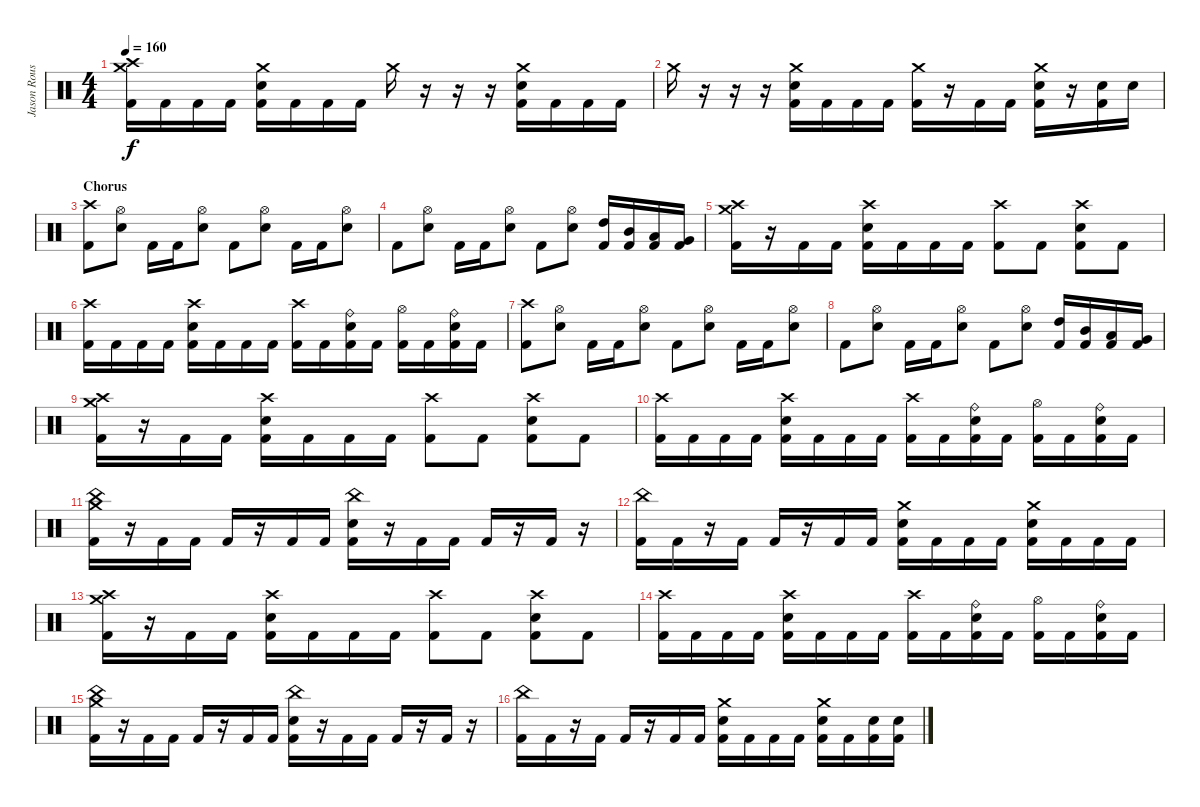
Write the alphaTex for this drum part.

\track ("Jason Rousseau" "Jason Rous") {instrument percussion}
\staff {score}
\articulation defaults
\ts (4 4)
\tempo 160
\clef neutral
\ks c
("Crash high (hit)" "Crash medium (hit)" "Kick (hit) 2").16{dy f} "Kick (hit) 2".16 "Kick (hit) 2".16 "Kick (hit) 2".16 ("Crash medium (hit)" "Electric Snare (hit)" "Kick (hit) 2").16 "Kick (hit) 2".16 "Kick (hit) 2".16 "Kick (hit) 2".16 "Crash medium (hit)".16 r.16 r.16 r.16 ("Crash medium (hit)" "Electric Snare (hit)" "Kick (hit) 2").16 "Kick (hit) 2".16 "Kick (hit) 2".16 "Kick (hit) 2".16 |
"Crash medium (hit)".16 r.16 r.16 r.16 ("Crash medium (hit)" "Electric Snare (hit)" "Kick (hit) 2").16 "Kick (hit) 2".16 "Kick (hit) 2".16 "Kick (hit) 2".16 ("Crash medium (hit)" "Kick (hit) 2").16 r.16 "Kick (hit) 2".16 "Kick (hit) 2".16 ("Crash medium (hit)" "Electric Snare (hit)" "Kick (hit) 2").16 r.16 ("Electric Snare (hit)" "Kick (hit) 2").16 "Electric Snare (hit)".16 |
\section ("" "Chorus")
("Crash high (hit)" "Kick (hit) 2").8 ("Hi-Hat (open)" "Electric Snare (hit)").8 "Kick (hit) 2".16 "Kick (hit) 2".16 ("Hi-Hat (open)" "Electric Snare (hit)").8 "Kick (hit) 2".8 ("Hi-Hat (open)" "Electric Snare (hit)").8 "Kick (hit) 2".16 "Kick (hit) 2".16 ("Hi-Hat (open)" "Electric Snare (hit)").8 |
"Kick (hit) 2".8 ("Hi-Hat (open)" "Electric Snare (hit)").8 "Kick (hit) 2".16 "Kick (hit) 2".16 ("Hi-Hat (open)" "Electric Snare (hit)").8 "Kick (hit) 2".8 ("Hi-Hat (open)" "Electric Snare (hit)").8 ("High Tom (hit)" "Kick (hit) 2").16 ("Mid Tom (hit)" "Kick (hit) 2").16 ("Low Tom (hit)" "Kick (hit) 2").16 ("Very Low Tom (hit)" "Kick (hit) 2").16 |
("Crash high (hit)" "Crash medium (hit)" "Kick (hit) 2").16 r.16 "Kick (hit) 2".16 "Kick (hit) 2".16 ("Crash high (hit)" "Electric Snare (hit)" "Kick (hit) 2").16 "Kick (hit) 2".16 "Kick (hit) 2".16 "Kick (hit) 2".16 ("Crash high (hit)" "Kick (hit) 2").8 "Kick (hit) 2".8 ("Crash high (hit)" "Electric Snare (hit)" "Kick (hit) 2").8 "Kick (hit) 2".8 |
("Crash high (hit)" "Kick (hit) 2").16 "Kick (hit) 2".16 "Kick (hit) 2".16 "Kick (hit) 2".16 ("Crash high (hit)" "Electric Snare (hit)" "Kick (hit) 2").16 "Kick (hit) 2".16 "Kick (hit) 2".16 "Kick (hit) 2".16 ("Crash high (hit)" "Kick (hit) 2").16 "Kick (hit) 2".16 ("Ride (bell)" "Electric Snare (hit)" "Kick (hit) 2").16 "Kick (hit) 2".16 ("Hi-Hat (open)" "Kick (hit) 2").16 "Kick (hit) 2".16 ("Ride (bell)" "Electric Snare (hit)" "Kick (hit) 2").16 "Kick (hit) 2".16 |
("Crash high (hit)" "Kick (hit) 2").8 ("Hi-Hat (open)" "Electric Snare (hit)").8 "Kick (hit) 2".16 "Kick (hit) 2".16 ("Hi-Hat (open)" "Electric Snare (hit)").8 "Kick (hit) 2".8 ("Hi-Hat (open)" "Electric Snare (hit)").8 "Kick (hit) 2".16 "Kick (hit) 2".16 ("Hi-Hat (open)" "Electric Snare (hit)").8 |
"Kick (hit) 2".8 ("Hi-Hat (open)" "Electric Snare (hit)").8 "Kick (hit) 2".16 "Kick (hit) 2".16 ("Hi-Hat (open)" "Electric Snare (hit)").8 "Kick (hit) 2".8 ("Hi-Hat (open)" "Electric Snare (hit)").8 ("High Tom (hit)" "Kick (hit) 2").16 ("Mid Tom (hit)" "Kick (hit) 2").16 ("Low Tom (hit)" "Kick (hit) 2").16 ("Very Low Tom (hit)" "Kick (hit) 2").16 |
("Crash high (hit)" "Crash medium (hit)" "Kick (hit) 2").16 r.16 "Kick (hit) 2".16 "Kick (hit) 2".16 ("Crash high (hit)" "Electric Snare (hit)" "Kick (hit) 2").16 "Kick (hit) 2".16 "Kick (hit) 2".16 "Kick (hit) 2".16 ("Crash high (hit)" "Kick (hit) 2").8 "Kick (hit) 2".8 ("Crash high (hit)" "Electric Snare (hit)" "Kick (hit) 2").8 "Kick (hit) 2".8 |
("Crash high (hit)" "Kick (hit) 2").16 "Kick (hit) 2".16 "Kick (hit) 2".16 "Kick (hit) 2".16 ("Crash high (hit)" "Electric Snare (hit)" "Kick (hit) 2").16 "Kick (hit) 2".16 "Kick (hit) 2".16 "Kick (hit) 2".16 ("Crash high (hit)" "Kick (hit) 2").16 "Kick (hit) 2".16 ("Ride (bell)" "Electric Snare (hit)" "Kick (hit) 2").16 "Kick (hit) 2".16 ("Hi-Hat (open)" "Kick (hit) 2").16 "Kick (hit) 2".16 ("Ride (bell)" "Electric Snare (hit)" "Kick (hit) 2").16 "Kick (hit) 2".16 |
("Crash medium (hit)" "China (hit)" "Kick (hit) 2").16 r.16 "Kick (hit) 2".16 "Kick (hit) 2".16 "Kick (hit) 2".16 r.16 "Kick (hit) 2".16 "Kick (hit) 2".16 ("China (hit)" "Electric Snare (hit)" "Kick (hit) 2").16 r.16 "Kick (hit) 2".16 "Kick (hit) 2".16 "Kick (hit) 2".16 r.16 "Kick (hit) 2".16 r.16 |
("China (hit)" "Kick (hit) 2").16 "Kick (hit) 2".16 r.16 "Kick (hit) 2".16 "Kick (hit) 2".16 r.16 "Kick (hit) 2".16 "Kick (hit) 2".16 ("Crash medium (hit)" "Electric Snare (hit)" "Kick (hit) 2").16 "Kick (hit) 2".16 "Kick (hit) 2".16 "Kick (hit) 2".16 ("Crash medium (hit)" "Electric Snare (hit)" "Kick (hit) 2").16 "Kick (hit) 2".16 "Kick (hit) 2".16 "Kick (hit) 2".16 |
("Crash high (hit)" "Crash medium (hit)" "Kick (hit) 2").16 r.16 "Kick (hit) 2".16 "Kick (hit) 2".16 ("Crash high (hit)" "Electric Snare (hit)" "Kick (hit) 2").16 "Kick (hit) 2".16 "Kick (hit) 2".16 "Kick (hit) 2".16 ("Crash high (hit)" "Kick (hit) 2").8 "Kick (hit) 2".8 ("Crash high (hit)" "Electric Snare (hit)" "Kick (hit) 2").8 "Kick (hit) 2".8 |
("Crash high (hit)" "Kick (hit) 2").16 "Kick (hit) 2".16 "Kick (hit) 2".16 "Kick (hit) 2".16 ("Crash high (hit)" "Electric Snare (hit)" "Kick (hit) 2").16 "Kick (hit) 2".16 "Kick (hit) 2".16 "Kick (hit) 2".16 ("Crash high (hit)" "Kick (hit) 2").16 "Kick (hit) 2".16 ("Ride (bell)" "Electric Snare (hit)" "Kick (hit) 2").16 "Kick (hit) 2".16 ("Hi-Hat (open)" "Kick (hit) 2").16 "Kick (hit) 2".16 ("Ride (bell)" "Electric Snare (hit)" "Kick (hit) 2").16 "Kick (hit) 2".16 |
("Crash medium (hit)" "China (hit)" "Kick (hit) 2").16 r.16 "Kick (hit) 2".16 "Kick (hit) 2".16 "Kick (hit) 2".16 r.16 "Kick (hit) 2".16 "Kick (hit) 2".16 ("China (hit)" "Electric Snare (hit)" "Kick (hit) 2").16 r.16 "Kick (hit) 2".16 "Kick (hit) 2".16 "Kick (hit) 2".16 r.16 "Kick (hit) 2".16 r.16 |
("China (hit)" "Kick (hit) 2").16 "Kick (hit) 2".16 r.16 "Kick (hit) 2".16 "Kick (hit) 2".16 r.16 "Kick (hit) 2".16 "Kick (hit) 2".16 ("Crash medium (hit)" "Electric Snare (hit)" "Kick (hit) 2").16 "Kick (hit) 2".16 "Kick (hit) 2".16 "Kick (hit) 2".16 ("Crash medium (hit)" "Electric Snare (hit)" "Kick (hit) 2").16 "Kick (hit) 2".16 ("Electric Snare (hit)" "Kick (hit) 2").16 ("Electric Snare (hit)" "Kick (hit) 2").16
